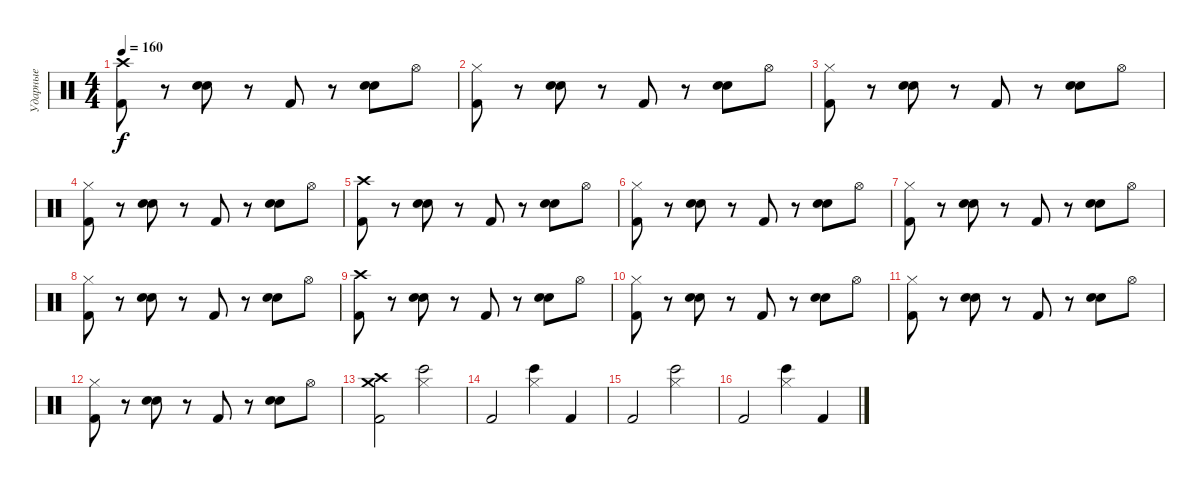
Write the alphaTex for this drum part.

\track ("Ударные" "Ударные") {instrument percussion}
\staff {score}
\articulation defaults
\ts (4 4)
\tempo 160
\clef neutral
\ks c
("Crash high (hit)" "Kick (hit) 2").8{dy f} r.8 ("Hand Clap (hit)" "Electric Snare (hit)").8 r.8 "Kick (hit) 2".8 r.8 ("Hand Clap (hit)" "Electric Snare (hit)").8 "Hi-Hat (open)".8 |
("Hi-Hat (closed)" "Kick (hit) 2").8 r.8 ("Hand Clap (hit)" "Electric Snare (hit)").8 r.8 "Kick (hit) 2".8 r.8 ("Hand Clap (hit)" "Electric Snare (hit)").8 "Hi-Hat (open)".8 |
("Hi-Hat (closed)" "Kick (hit) 2").8 r.8 ("Hand Clap (hit)" "Electric Snare (hit)").8 r.8 "Kick (hit) 2".8 r.8 ("Hand Clap (hit)" "Electric Snare (hit)").8 "Hi-Hat (open)".8 |
("Hi-Hat (closed)" "Kick (hit) 2").8 r.8 ("Hand Clap (hit)" "Electric Snare (hit)").8 r.8 "Kick (hit) 2".8 r.8 ("Hand Clap (hit)" "Electric Snare (hit)").8 "Hi-Hat (open)".8 |
("Crash high (hit)" "Kick (hit) 2").8 r.8 ("Hand Clap (hit)" "Electric Snare (hit)").8 r.8 "Kick (hit) 2".8 r.8 ("Hand Clap (hit)" "Electric Snare (hit)").8 "Hi-Hat (open)".8 |
("Hi-Hat (closed)" "Kick (hit) 2").8 r.8 ("Hand Clap (hit)" "Electric Snare (hit)").8 r.8 "Kick (hit) 2".8 r.8 ("Hand Clap (hit)" "Electric Snare (hit)").8 "Hi-Hat (open)".8 |
("Hi-Hat (closed)" "Kick (hit) 2").8 r.8 ("Hand Clap (hit)" "Electric Snare (hit)").8 r.8 "Kick (hit) 2".8 r.8 ("Hand Clap (hit)" "Electric Snare (hit)").8 "Hi-Hat (open)".8 |
("Hi-Hat (closed)" "Kick (hit) 2").8 r.8 ("Hand Clap (hit)" "Electric Snare (hit)").8 r.8 "Kick (hit) 2".8 r.8 ("Hand Clap (hit)" "Electric Snare (hit)").8 "Hi-Hat (open)".8 |
("Crash high (hit)" "Kick (hit) 2").8 r.8 ("Hand Clap (hit)" "Electric Snare (hit)").8 r.8 "Kick (hit) 2".8 r.8 ("Hand Clap (hit)" "Electric Snare (hit)").8 "Hi-Hat (open)".8 |
("Hi-Hat (closed)" "Kick (hit) 2").8 r.8 ("Hand Clap (hit)" "Electric Snare (hit)").8 r.8 "Kick (hit) 2".8 r.8 ("Hand Clap (hit)" "Electric Snare (hit)").8 "Hi-Hat (open)".8 |
("Hi-Hat (closed)" "Kick (hit) 2").8 r.8 ("Hand Clap (hit)" "Electric Snare (hit)").8 r.8 "Kick (hit) 2".8 r.8 ("Hand Clap (hit)" "Electric Snare (hit)").8 "Hi-Hat (open)".8 |
("Hi-Hat (closed)" "Kick (hit) 2").8 r.8 ("Hand Clap (hit)" "Electric Snare (hit)").8 r.8 "Kick (hit) 2".8 r.8 ("Hand Clap (hit)" "Electric Snare (hit)").8 "Hi-Hat (open)".8 |
("Crash high (hit)" "Crash medium (hit)" "Kick (hit) 2").2 ("Hi-Hat (closed)" "Bongo High (hit)").2 |
"Kick (hit) 2".2 ("Hi-Hat (closed)" "Bongo High (hit)").4 "Kick (hit) 2".4 |
"Kick (hit) 2".2 ("Hi-Hat (closed)" "Bongo High (hit)").2 |
"Kick (hit) 2".2 ("Hi-Hat (closed)" "Bongo High (hit)").4 "Kick (hit) 2".4
